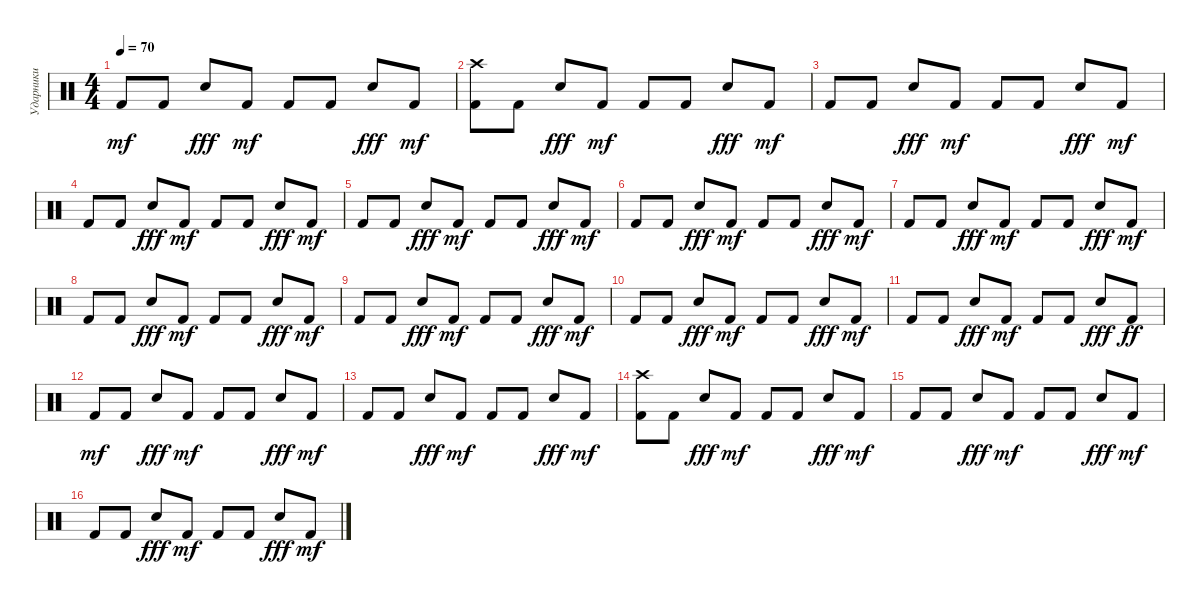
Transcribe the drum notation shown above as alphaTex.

\track ("Ударники" "Ударники") {instrument percussion}
\staff {score}
\articulation defaults
\ts (4 4)
\tempo 70
\clef neutral
\ks c "Kick (hit) 2".8{dy mf} "Kick (hit) 2".8 "Snare (hit) 2".8{dy fff} "Kick (hit) 2".8{dy mf} "Kick (hit) 2".8 "Kick (hit) 2".8 "Snare (hit) 2".8{dy fff} "Kick (hit) 2".8{dy mf}
|
("Crash high (hit)" "Kick (hit) 2").8 "Kick (hit) 2".8 "Snare (hit) 2".8{dy fff} "Kick (hit) 2".8{dy mf} "Kick (hit) 2".8 "Kick (hit) 2".8 "Snare (hit) 2".8{dy fff} "Kick (hit) 2".8{dy mf} |
"Kick (hit) 2".8 "Kick (hit) 2".8 "Snare (hit) 2".8{dy fff} "Kick (hit) 2".8{dy mf} "Kick (hit) 2".8 "Kick (hit) 2".8 "Snare (hit) 2".8{dy fff} "Kick (hit) 2".8{dy mf} |
"Kick (hit) 2".8 "Kick (hit) 2".8 "Snare (hit) 2".8{dy fff} "Kick (hit) 2".8{dy mf} "Kick (hit) 2".8 "Kick (hit) 2".8 "Snare (hit) 2".8{dy fff} "Kick (hit) 2".8{dy mf} |
"Kick (hit) 2".8 "Kick (hit) 2".8 "Snare (hit) 2".8{dy fff} "Kick (hit) 2".8{dy mf} "Kick (hit) 2".8 "Kick (hit) 2".8 "Snare (hit) 2".8{dy fff} "Kick (hit) 2".8{dy mf} |
"Kick (hit) 2".8 "Kick (hit) 2".8 "Snare (hit) 2".8{dy fff} "Kick (hit) 2".8{dy mf} "Kick (hit) 2".8 "Kick (hit) 2".8 "Snare (hit) 2".8{dy fff} "Kick (hit) 2".8{dy mf} |
"Kick (hit) 2".8 "Kick (hit) 2".8 "Snare (hit) 2".8{dy fff} "Kick (hit) 2".8{dy mf} "Kick (hit) 2".8 "Kick (hit) 2".8 "Snare (hit) 2".8{dy fff} "Kick (hit) 2".8{dy mf} |
"Kick (hit) 2".8 "Kick (hit) 2".8 "Snare (hit) 2".8{dy fff} "Kick (hit) 2".8{dy mf} "Kick (hit) 2".8 "Kick (hit) 2".8 "Snare (hit) 2".8{dy fff} "Kick (hit) 2".8{dy mf} |
"Kick (hit) 2".8 "Kick (hit) 2".8 "Snare (hit) 2".8{dy fff} "Kick (hit) 2".8{dy mf} "Kick (hit) 2".8 "Kick (hit) 2".8 "Snare (hit) 2".8{dy fff} "Kick (hit) 2".8{dy mf} |
"Kick (hit) 2".8 "Kick (hit) 2".8 "Snare (hit) 2".8{dy fff} "Kick (hit) 2".8{dy mf} "Kick (hit) 2".8 "Kick (hit) 2".8 "Snare (hit) 2".8{dy fff} "Kick (hit) 2".8{dy mf} |
"Kick (hit) 2".8 "Kick (hit) 2".8 "Snare (hit) 2".8{dy fff} "Kick (hit) 2".8{dy mf} "Kick (hit) 2".8 "Kick (hit) 2".8 "Snare (hit) 2".8{dy fff} "Kick (hit) 2".8{dy ff} |
"Kick (hit) 2".8{dy mf} "Kick (hit) 2".8 "Snare (hit) 2".8{dy fff} "Kick (hit) 2".8{dy mf} "Kick (hit) 2".8 "Kick (hit) 2".8 "Snare (hit) 2".8{dy fff} "Kick (hit) 2".8{dy mf} |
"Kick (hit) 2".8 "Kick (hit) 2".8 "Snare (hit) 2".8{dy fff} "Kick (hit) 2".8{dy mf} "Kick (hit) 2".8 "Kick (hit) 2".8 "Snare (hit) 2".8{dy fff} "Kick (hit) 2".8{dy mf} |
("Crash high (hit)" "Kick (hit) 2").8 "Kick (hit) 2".8 "Snare (hit) 2".8{dy fff} "Kick (hit) 2".8{dy mf} "Kick (hit) 2".8 "Kick (hit) 2".8 "Snare (hit) 2".8{dy fff} "Kick (hit) 2".8{dy mf} |
"Kick (hit) 2".8 "Kick (hit) 2".8 "Snare (hit) 2".8{dy fff} "Kick (hit) 2".8{dy mf} "Kick (hit) 2".8 "Kick (hit) 2".8 "Snare (hit) 2".8{dy fff} "Kick (hit) 2".8{dy mf} |
"Kick (hit) 2".8 "Kick (hit) 2".8 "Snare (hit) 2".8{dy fff} "Kick (hit) 2".8{dy mf} "Kick (hit) 2".8 "Kick (hit) 2".8 "Snare (hit) 2".8{dy fff} "Kick (hit) 2".8{dy mf}
